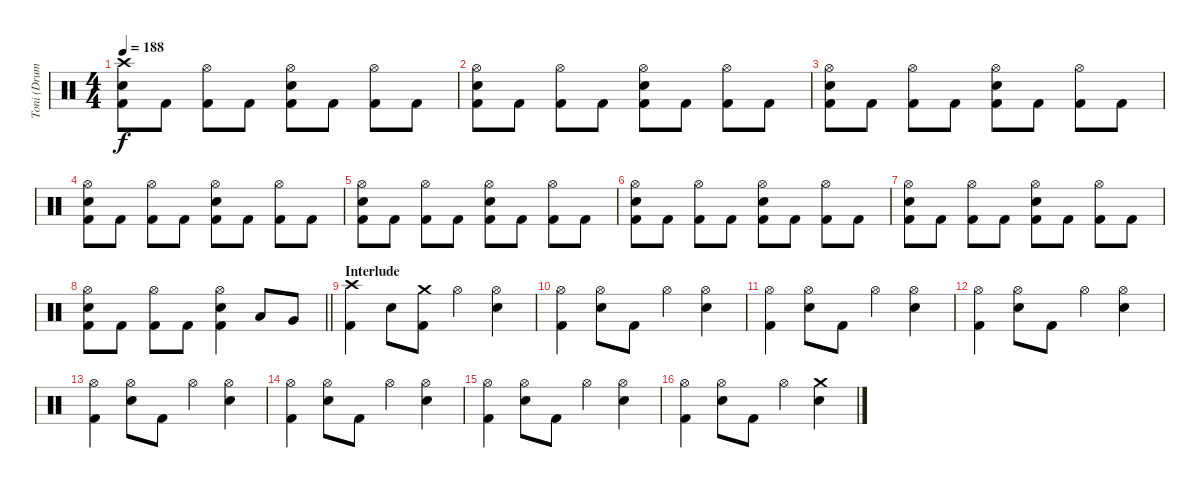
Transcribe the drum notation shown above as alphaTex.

\track ("Toni (Drums)" "Toni (Drum") {instrument percussion}
\staff {score}
\articulation defaults
\ts (4 4)
\tempo 188
\clef neutral
\ks c
("Crash high (hit)" "Electric Snare (hit)" "Kick (hit) 2").8{dy f} "Kick (hit) 2".8 ("Hi-Hat (open)" "Kick (hit) 2").8 "Kick (hit) 2".8 ("Hi-Hat (open)" "Electric Snare (hit)" "Kick (hit) 2").8 "Kick (hit) 2".8 ("Hi-Hat (open)" "Kick (hit) 2").8 "Kick (hit) 2".8 |
("Hi-Hat (open)" "Electric Snare (hit)" "Kick (hit) 2").8 "Kick (hit) 2".8 ("Hi-Hat (open)" "Kick (hit) 2").8 "Kick (hit) 2".8 ("Hi-Hat (open)" "Electric Snare (hit)" "Kick (hit) 2").8 "Kick (hit) 2".8 ("Hi-Hat (open)" "Kick (hit) 2").8 "Kick (hit) 2".8 |
("Hi-Hat (open)" "Electric Snare (hit)" "Kick (hit) 2").8 "Kick (hit) 2".8 ("Hi-Hat (open)" "Kick (hit) 2").8 "Kick (hit) 2".8 ("Hi-Hat (open)" "Electric Snare (hit)" "Kick (hit) 2").8 "Kick (hit) 2".8 ("Hi-Hat (open)" "Kick (hit) 2").8 "Kick (hit) 2".8 |
("Hi-Hat (open)" "Electric Snare (hit)" "Kick (hit) 2").8 "Kick (hit) 2".8 ("Hi-Hat (open)" "Kick (hit) 2").8 "Kick (hit) 2".8 ("Hi-Hat (open)" "Electric Snare (hit)" "Kick (hit) 2").8 "Kick (hit) 2".8 ("Hi-Hat (open)" "Kick (hit) 2").8 "Kick (hit) 2".8 |
("Hi-Hat (open)" "Electric Snare (hit)" "Kick (hit) 2").8 "Kick (hit) 2".8 ("Hi-Hat (open)" "Kick (hit) 2").8 "Kick (hit) 2".8 ("Hi-Hat (open)" "Electric Snare (hit)" "Kick (hit) 2").8 "Kick (hit) 2".8 ("Hi-Hat (open)" "Kick (hit) 2").8 "Kick (hit) 2".8 |
("Hi-Hat (open)" "Electric Snare (hit)" "Kick (hit) 2").8 "Kick (hit) 2".8 ("Hi-Hat (open)" "Kick (hit) 2").8 "Kick (hit) 2".8 ("Hi-Hat (open)" "Electric Snare (hit)" "Kick (hit) 2").8 "Kick (hit) 2".8 ("Hi-Hat (open)" "Kick (hit) 2").8 "Kick (hit) 2".8 |
("Hi-Hat (open)" "Electric Snare (hit)" "Kick (hit) 2").8 "Kick (hit) 2".8 ("Hi-Hat (open)" "Kick (hit) 2").8 "Kick (hit) 2".8 ("Hi-Hat (open)" "Electric Snare (hit)" "Kick (hit) 2").8 "Kick (hit) 2".8 ("Hi-Hat (open)" "Kick (hit) 2").8 "Kick (hit) 2".8 |
\barLineRight lightlight
("Hi-Hat (open)" "Electric Snare (hit)" "Kick (hit) 2").8 "Kick (hit) 2".8 ("Hi-Hat (open)" "Kick (hit) 2").8 "Kick (hit) 2".8 ("Hi-Hat (open)" "Electric Snare (hit)" "Kick (hit) 2").4 "Low Tom (hit)".8 "Very Low Tom (hit)".8 |
\section ("" "Interlude")
("Crash high (hit)" "Kick (hit) 2").4 "Electric Snare (hit)".8 ("Crash medium (hit)" "Kick (hit) 2").8 "Hi-Hat (open)".4 ("Hi-Hat (open)" "Electric Snare (hit)").4 |
("Hi-Hat (open)" "Kick (hit) 2").4 ("Hi-Hat (open)" "Electric Snare (hit)").8 "Kick (hit) 2".8 "Hi-Hat (open)".4 ("Hi-Hat (open)" "Electric Snare (hit)").4 |
("Hi-Hat (open)" "Kick (hit) 2").4 ("Hi-Hat (open)" "Electric Snare (hit)").8 "Kick (hit) 2".8 "Hi-Hat (open)".4 ("Hi-Hat (open)" "Electric Snare (hit)").4 |
("Hi-Hat (open)" "Kick (hit) 2").4 ("Hi-Hat (open)" "Electric Snare (hit)").8 "Kick (hit) 2".8 "Hi-Hat (open)".4 ("Hi-Hat (open)" "Electric Snare (hit)").4 |
("Hi-Hat (open)" "Kick (hit) 2").4 ("Hi-Hat (open)" "Electric Snare (hit)").8 "Kick (hit) 2".8 "Hi-Hat (open)".4 ("Hi-Hat (open)" "Electric Snare (hit)").4 |
("Hi-Hat (open)" "Kick (hit) 2").4 ("Hi-Hat (open)" "Electric Snare (hit)").8 "Kick (hit) 2".8 "Hi-Hat (open)".4 ("Hi-Hat (open)" "Electric Snare (hit)").4 |
("Hi-Hat (open)" "Kick (hit) 2").4 ("Hi-Hat (open)" "Electric Snare (hit)").8 "Kick (hit) 2".8 "Hi-Hat (open)".4 ("Hi-Hat (open)" "Electric Snare (hit)").4 |
("Hi-Hat (open)" "Kick (hit) 2").4 ("Hi-Hat (open)" "Electric Snare (hit)").8 "Kick (hit) 2".8 "Hi-Hat (open)".4 ("Crash medium (hit)" "Electric Snare (hit)").4
